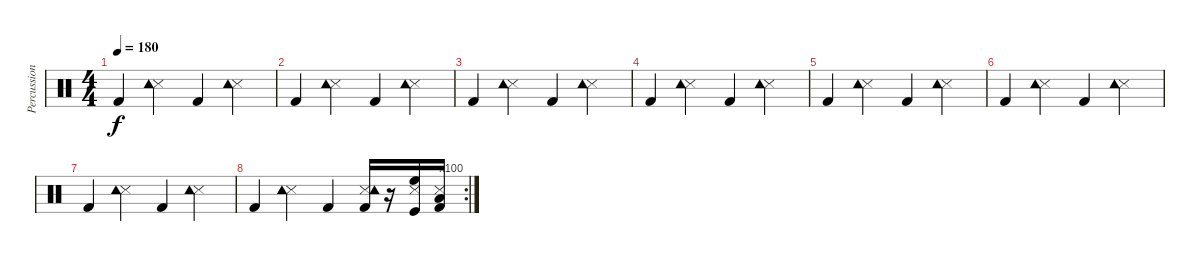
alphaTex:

\track ("Percussions" "Percussion") {instrument percussion}
\staff {score}
\articulation defaults
\ts (4 4)
\tempo 180
\clef neutral
\ks c "Kick (hit) 2".4{dy f}
("Snare (side stick) 3" "Tambourine (hit)").4 "Kick (hit) 2".4 ("Snare (side stick) 3" "Tambourine (hit)").4 |
"Kick (hit) 2".4 ("Snare (side stick) 3" "Tambourine (hit)").4 "Kick (hit) 2".4 ("Snare (side stick) 3" "Tambourine (hit)").4 |
"Kick (hit) 2".4 ("Snare (side stick) 3" "Tambourine (hit)").4 "Kick (hit) 2".4 ("Snare (side stick) 3" "Tambourine (hit)").4 |
"Kick (hit) 2".4 ("Snare (side stick) 3" "Tambourine (hit)").4 "Kick (hit) 2".4 ("Snare (side stick) 3" "Tambourine (hit)").4 |
"Kick (hit) 2".4 ("Snare (side stick) 3" "Tambourine (hit)").4 "Kick (hit) 2".4 ("Snare (side stick) 3" "Tambourine (hit)").4 |
"Kick (hit) 2".4 ("Snare (side stick) 3" "Tambourine (hit)").4 "Kick (hit) 2".4 ("Snare (side stick) 3" "Tambourine (hit)").4 |
"Kick (hit) 2".4 ("Snare (side stick) 3" "Tambourine (hit)").4 "Kick (hit) 2".4 ("Snare (side stick) 3" "Tambourine (hit)").4 |
\rc 100 "Kick (hit) 2".4
("Snare (side stick) 3" "Tambourine (hit)").4 "Kick (hit) 2".4 ("Snare (side stick) 3" "Tambourine (hit)" "Kick (hit) 2").16 r.16 ("Snare (side stick) 3" "High Floor Tom (hit)" "Kick (hit)").16 ("Snare (side stick) 3" "Low Tom (hit)" "Kick (hit) 2").16
